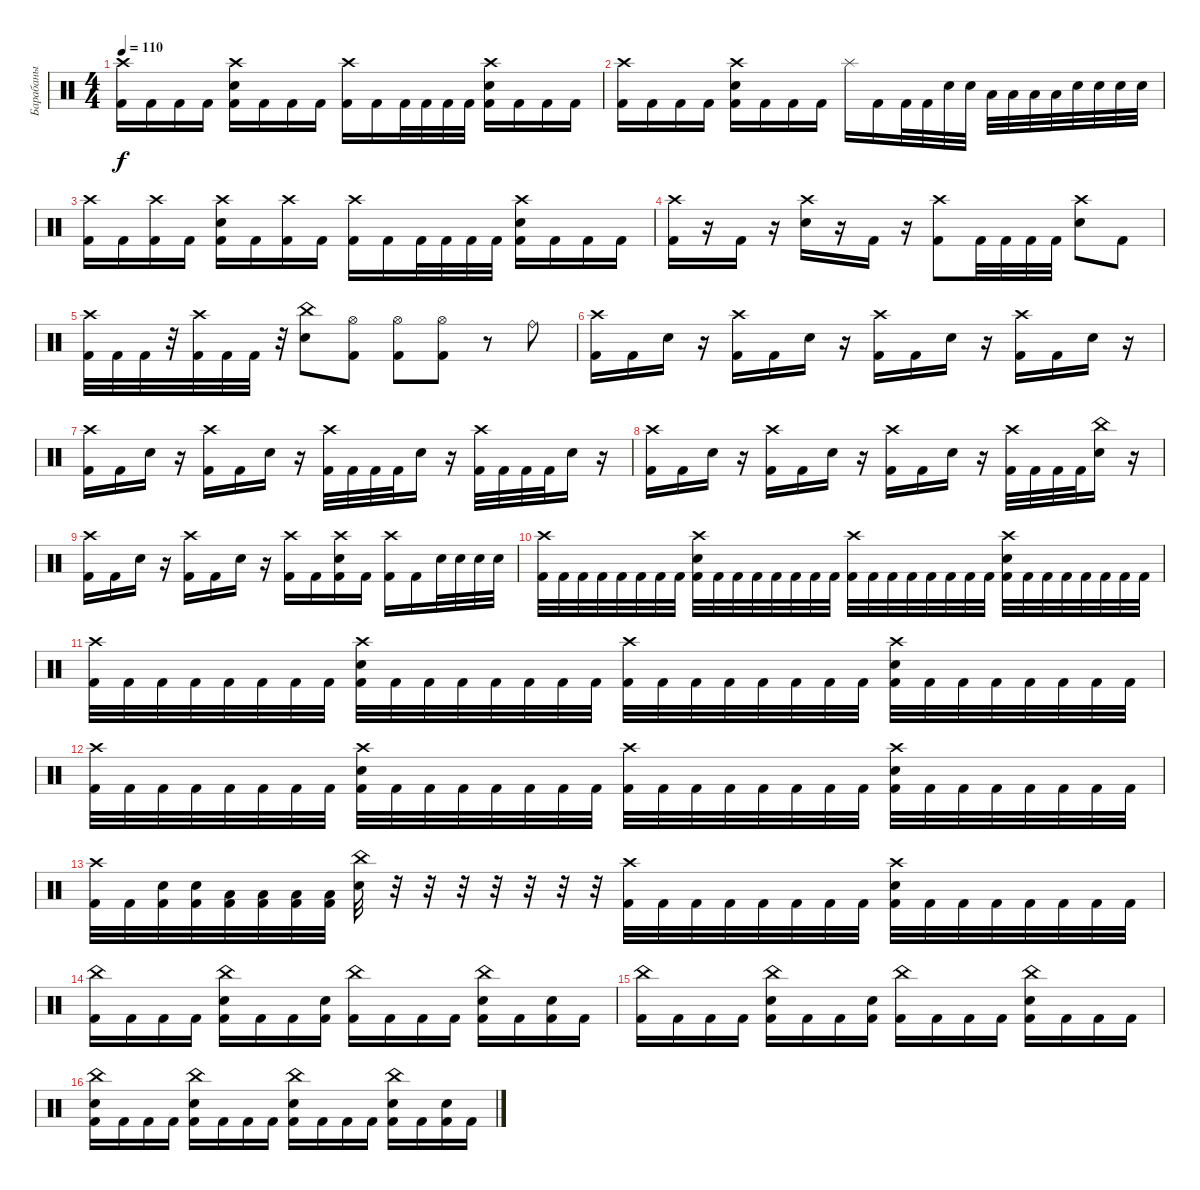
\track ("Барабаны" "Барабаны") {instrument percussion}
\staff {score}
\articulation defaults
\ts (4 4)
\tempo 110
\clef neutral
\ks c
("Crash high (hit)" "Kick (hit) 2").16{dy f} "Kick (hit) 2".16 "Kick (hit) 2".16 "Kick (hit) 2".16 ("Crash high (hit)" "Electric Snare (hit)" "Kick (hit) 2").16 "Kick (hit) 2".16 "Kick (hit) 2".16 "Kick (hit) 2".16 ("Crash high (hit)" "Kick (hit) 2").16 "Kick (hit) 2".16 "Kick (hit) 2".32 "Kick (hit) 2".32 "Kick (hit) 2".32 "Kick (hit) 2".32 ("Crash high (hit)" "Electric Snare (hit)" "Kick (hit) 2").16 "Kick (hit) 2".16 "Kick (hit) 2".16 "Kick (hit) 2".16 |
("Crash high (hit)" "Kick (hit) 2").16 "Kick (hit) 2".16 "Kick (hit) 2".16 "Kick (hit) 2".16 ("Crash high (hit)" "Electric Snare (hit)" "Kick (hit) 2").16 "Kick (hit) 2".16 "Kick (hit) 2".16 "Kick (hit) 2".16 "Splash (hit)".16 "Kick (hit) 2".16 "Kick (hit) 2".32 "Kick (hit) 2".32 "Electric Snare (hit)".32 "Electric Snare (hit)".32 "Low Tom (hit)".32 "Low Tom (hit)".32 "Low Tom (hit)".32 "Low Tom (hit)".32 "Electric Snare (hit)".32 "Electric Snare (hit)".32 "Electric Snare (hit)".32 "Electric Snare (hit)".32 |
("Crash high (hit)" "Kick (hit) 2").16 "Kick (hit) 2".16 ("Crash high (hit)" "Kick (hit) 2").16 "Kick (hit) 2".16 ("Crash high (hit)" "Electric Snare (hit)" "Kick (hit) 2").16 "Kick (hit) 2".16 ("Crash high (hit)" "Kick (hit) 2").16 "Kick (hit) 2".16 ("Crash high (hit)" "Kick (hit) 2").16 "Kick (hit) 2".16 "Kick (hit) 2".32 "Kick (hit) 2".32 "Kick (hit) 2".32 "Kick (hit) 2".32 ("Crash high (hit)" "Electric Snare (hit)" "Kick (hit) 2").16 "Kick (hit) 2".16 "Kick (hit) 2".16 "Kick (hit) 2".16 |
("Crash high (hit)" "Kick (hit) 2").16 r.16 "Kick (hit) 2".16 r.16 ("Crash high (hit)" "Electric Snare (hit)").16 r.16 "Kick (hit) 2".16 r.16 ("Crash high (hit)" "Kick (hit) 2").8 "Kick (hit) 2".32 "Kick (hit) 2".32 "Kick (hit) 2".32 "Kick (hit) 2".32 ("Crash high (hit)" "Electric Snare (hit)").8 "Kick (hit) 2".8 |
("Crash high (hit)" "Kick (hit) 2").32 "Kick (hit) 2".32 "Kick (hit) 2".32 r.32 ("Crash high (hit)" "Kick (hit) 2").32 "Kick (hit) 2".32 "Kick (hit) 2".32 r.32 ("China (hit)" "Electric Snare (hit)").8 ("Hi-Hat (open)" "Kick (hit) 2").8 ("Hi-Hat (open)" "Kick (hit) 2").8 ("Hi-Hat (open)" "Kick (hit) 2").8 r.8 "Ride (bell)".8 |
("Crash high (hit)" "Kick (hit) 2").16 "Kick (hit) 2".16 "Electric Snare (hit)".16 r.16 ("Crash high (hit)" "Kick (hit) 2").16 "Kick (hit) 2".16 "Electric Snare (hit)".16 r.16 ("Crash high (hit)" "Kick (hit) 2").16 "Kick (hit) 2".16 "Electric Snare (hit)".16 r.16 ("Crash high (hit)" "Kick (hit) 2").16 "Kick (hit) 2".16 "Electric Snare (hit)".16 r.16 |
("Crash high (hit)" "Kick (hit) 2").16 "Kick (hit) 2".16 "Electric Snare (hit)".16 r.16 ("Crash high (hit)" "Kick (hit) 2").16 "Kick (hit) 2".16 "Electric Snare (hit)".16 r.16 ("Crash high (hit)" "Kick (hit) 2").32 "Kick (hit) 2".32 "Kick (hit) 2".32 "Kick (hit) 2".32 "Electric Snare (hit)".16 r.16 ("Crash high (hit)" "Kick (hit) 2").32 "Kick (hit) 2".32 "Kick (hit) 2".32 "Kick (hit) 2".32 "Electric Snare (hit)".16 r.16 |
("Crash high (hit)" "Kick (hit) 2").16 "Kick (hit) 2".16 "Electric Snare (hit)".16 r.16 ("Crash high (hit)" "Kick (hit) 2").16 "Kick (hit) 2".16 "Electric Snare (hit)".16 r.16 ("Crash high (hit)" "Kick (hit) 2").16 "Kick (hit) 2".16 "Electric Snare (hit)".16 r.16 ("Crash high (hit)" "Kick (hit) 2").32 "Kick (hit) 2".32 "Kick (hit) 2".32 "Kick (hit) 2".32 ("China (hit)" "Electric Snare (hit)").16 r.16 |
("Crash high (hit)" "Kick (hit) 2").16 "Kick (hit) 2".16 "Electric Snare (hit)".16 r.16 ("Crash high (hit)" "Kick (hit) 2").16 "Kick (hit) 2".16 "Electric Snare (hit)".16 r.16 ("Crash high (hit)" "Kick (hit) 2").16 "Kick (hit) 2".16 ("Crash high (hit)" "Electric Snare (hit)" "Kick (hit) 2").16 "Kick (hit) 2".16 ("Crash high (hit)" "Kick (hit) 2").16 "Kick (hit) 2".16 "Electric Snare (hit)".32 "Electric Snare (hit)".32 "Electric Snare (hit)".32 "Electric Snare (hit)".32 |
("Crash high (hit)" "Kick (hit) 2").32 "Kick (hit) 2".32 "Kick (hit) 2".32 "Kick (hit) 2".32 "Kick (hit) 2".32 "Kick (hit) 2".32 "Kick (hit) 2".32 "Kick (hit) 2".32 ("Crash high (hit)" "Electric Snare (hit)" "Kick (hit) 2").32 "Kick (hit) 2".32 "Kick (hit) 2".32 "Kick (hit) 2".32 "Kick (hit) 2".32 "Kick (hit) 2".32 "Kick (hit) 2".32 "Kick (hit) 2".32 ("Crash high (hit)" "Kick (hit) 2").32 "Kick (hit) 2".32 "Kick (hit) 2".32 "Kick (hit) 2".32 "Kick (hit) 2".32 "Kick (hit) 2".32 "Kick (hit) 2".32 "Kick (hit) 2".32 ("Crash high (hit)" "Electric Snare (hit)" "Kick (hit) 2").32 "Kick (hit) 2".32 "Kick (hit) 2".32 "Kick (hit) 2".32 "Kick (hit) 2".32 "Kick (hit) 2".32 "Kick (hit) 2".32 "Kick (hit) 2".32 |
("Crash high (hit)" "Kick (hit) 2").32 "Kick (hit) 2".32 "Kick (hit) 2".32 "Kick (hit) 2".32 "Kick (hit) 2".32 "Kick (hit) 2".32 "Kick (hit) 2".32 "Kick (hit) 2".32 ("Crash high (hit)" "Electric Snare (hit)" "Kick (hit) 2").32 "Kick (hit) 2".32 "Kick (hit) 2".32 "Kick (hit) 2".32 "Kick (hit) 2".32 "Kick (hit) 2".32 "Kick (hit) 2".32 "Kick (hit) 2".32 ("Crash high (hit)" "Kick (hit) 2").32 "Kick (hit) 2".32 "Kick (hit) 2".32 "Kick (hit) 2".32 "Kick (hit) 2".32 "Kick (hit) 2".32 "Kick (hit) 2".32 "Kick (hit) 2".32 ("Crash high (hit)" "Electric Snare (hit)" "Kick (hit) 2").32 "Kick (hit) 2".32 "Kick (hit) 2".32 "Kick (hit) 2".32 "Kick (hit) 2".32 "Kick (hit) 2".32 "Kick (hit) 2".32 "Kick (hit) 2".32 |
("Crash high (hit)" "Kick (hit) 2").32 "Kick (hit) 2".32 "Kick (hit) 2".32 "Kick (hit) 2".32 "Kick (hit) 2".32 "Kick (hit) 2".32 "Kick (hit) 2".32 "Kick (hit) 2".32 ("Crash high (hit)" "Electric Snare (hit)" "Kick (hit) 2").32 "Kick (hit) 2".32 "Kick (hit) 2".32 "Kick (hit) 2".32 "Kick (hit) 2".32 "Kick (hit) 2".32 "Kick (hit) 2".32 "Kick (hit) 2".32 ("Crash high (hit)" "Kick (hit) 2").32 "Kick (hit) 2".32 "Kick (hit) 2".32 "Kick (hit) 2".32 "Kick (hit) 2".32 "Kick (hit) 2".32 "Kick (hit) 2".32 "Kick (hit) 2".32 ("Crash high (hit)" "Electric Snare (hit)" "Kick (hit) 2").32 "Kick (hit) 2".32 "Kick (hit) 2".32 "Kick (hit) 2".32 "Kick (hit) 2".32 "Kick (hit) 2".32 "Kick (hit) 2".32 "Kick (hit) 2".32 |
("Crash high (hit)" "Kick (hit) 2").32 "Kick (hit) 2".32 ("Electric Snare (hit)" "Kick (hit) 2").32 ("Electric Snare (hit)" "Kick (hit) 2").32 ("Low Tom (hit)" "Kick (hit) 2").32 ("Low Tom (hit)" "Kick (hit) 2").32 ("Low Tom (hit)" "Kick (hit) 2").32 ("Low Tom (hit)" "Kick (hit) 2").32 ("China (hit)" "Electric Snare (hit)").32 r.32 r.32 r.32 r.32 r.32 r.32 r.32 ("Crash high (hit)" "Kick (hit) 2").32 "Kick (hit) 2".32 "Kick (hit) 2".32 "Kick (hit) 2".32 "Kick (hit) 2".32 "Kick (hit) 2".32 "Kick (hit) 2".32 "Kick (hit) 2".32 ("Crash high (hit)" "Electric Snare (hit)" "Kick (hit) 2").32 "Kick (hit) 2".32 "Kick (hit) 2".32 "Kick (hit) 2".32 "Kick (hit) 2".32 "Kick (hit) 2".32 "Kick (hit) 2".32 "Kick (hit) 2".32 |
("China (hit)" "Kick (hit) 2").16 "Kick (hit) 2".16 "Kick (hit) 2".16 "Kick (hit) 2".16 ("China (hit)" "Electric Snare (hit)" "Kick (hit) 2").16 "Kick (hit) 2".16 "Kick (hit) 2".16 ("Electric Snare (hit)" "Kick (hit) 2").16 ("China (hit)" "Kick (hit) 2").16 "Kick (hit) 2".16 "Kick (hit) 2".16 "Kick (hit) 2".16 ("China (hit)" "Electric Snare (hit)" "Kick (hit) 2").16 "Kick (hit) 2".16 ("Electric Snare (hit)" "Kick (hit) 2").16 "Kick (hit) 2".16 |
("China (hit)" "Kick (hit) 2").16 "Kick (hit) 2".16 "Kick (hit) 2".16 "Kick (hit) 2".16 ("China (hit)" "Electric Snare (hit)" "Kick (hit) 2").16 "Kick (hit) 2".16 "Kick (hit) 2".16 ("Electric Snare (hit)" "Kick (hit) 2").16 ("China (hit)" "Kick (hit) 2").16 "Kick (hit) 2".16 "Kick (hit) 2".16 "Kick (hit) 2".16 ("China (hit)" "Electric Snare (hit)" "Kick (hit) 2").16 "Kick (hit) 2".16 "Kick (hit) 2".16 "Kick (hit) 2".16 |
("China (hit)" "Electric Snare (hit)" "Kick (hit) 2").16 "Kick (hit) 2".16 "Kick (hit) 2".16 "Kick (hit) 2".16 ("China (hit)" "Electric Snare (hit)" "Kick (hit) 2").16 "Kick (hit) 2".16 "Kick (hit) 2".16 "Kick (hit) 2".16 ("China (hit)" "Electric Snare (hit)" "Kick (hit) 2").16 "Kick (hit) 2".16 "Kick (hit) 2".16 "Kick (hit) 2".16 ("China (hit)" "Electric Snare (hit)" "Kick (hit) 2").16 "Kick (hit) 2".16 ("Electric Snare (hit)" "Kick (hit) 2").16 "Kick (hit) 2".16
